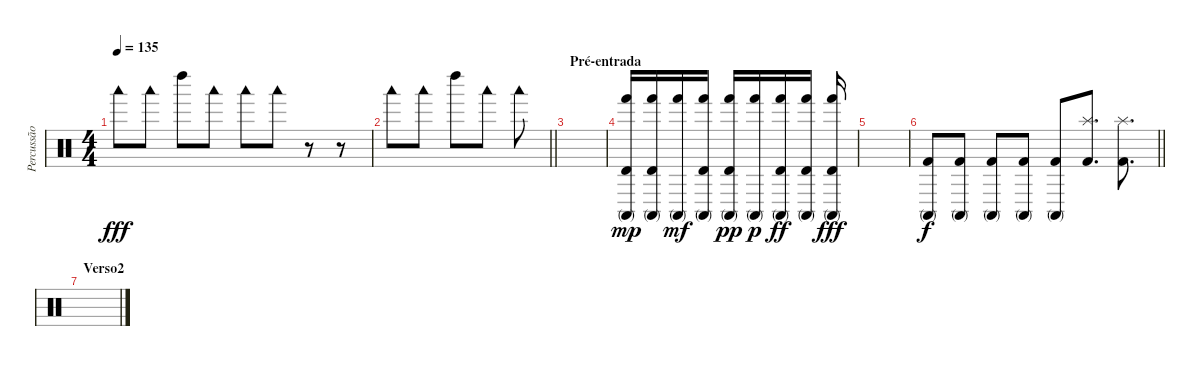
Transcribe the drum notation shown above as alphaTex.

\track ("Percussão" "Percussão") {instrument percussion}
\staff {score}
\articulation defaults
\ts (4 4)
\tempo 135
\clef neutral
\ks c "Woodblock low (hit)".8{dy fff} "Woodblock low (hit)".8 "Left Maraca (hit)".8 "Woodblock low (hit)".8 "Woodblock low (hit)".8 "Woodblock low (hit)".8
r.8 r.8 |
\barLineRight lightlight "Woodblock low (hit)".8 "Woodblock low (hit)".8 "Left Maraca (hit)".8 "Woodblock low (hit)".8 "Woodblock low (hit)".8
|
\section ("" "Pré-entrada")
|
("Hand (hit)" "Timbale high (hit)" "Conga high (mute)").16{dy mp} ("Hand (hit)" "Timbale high (hit)" "Conga high (mute)").16 ("Hand (hit)" "Conga high (mute)").16{dy mf} ("Hand (hit)" "Timbale high (hit)" "Conga high (mute)").16 ("Hand (hit)" "Timbale high (hit)" "Conga high (mute)").16{dy pp} ("Hand (hit)" "Conga high (mute)").16{dy p} ("Hand (hit)" "Timbale high (hit)" "Conga high (mute)").16{dy ff} ("Hand (hit)" "Timbale high (hit)" "Conga high (mute)").16 ("Hand (hit)" "Timbale high (hit)" "Conga high (mute)").16{dy fff} |
|
\barLineRight lightlight
("Kick (hit) 2" "Conga high (mute)").8{dy f} ("Kick (hit) 2" "Conga high (mute)").8 ("Kick (hit) 2" "Conga high (mute)").8 ("Kick (hit) 2" "Conga high (mute)").8 ("Kick (hit) 2" "Conga high (mute)").8 ("Kick (hit) 2" "Splash (hit)").8{d} ("Kick (hit) 2" "Splash (hit)").8{d} |
\section ("" "Verso2")
